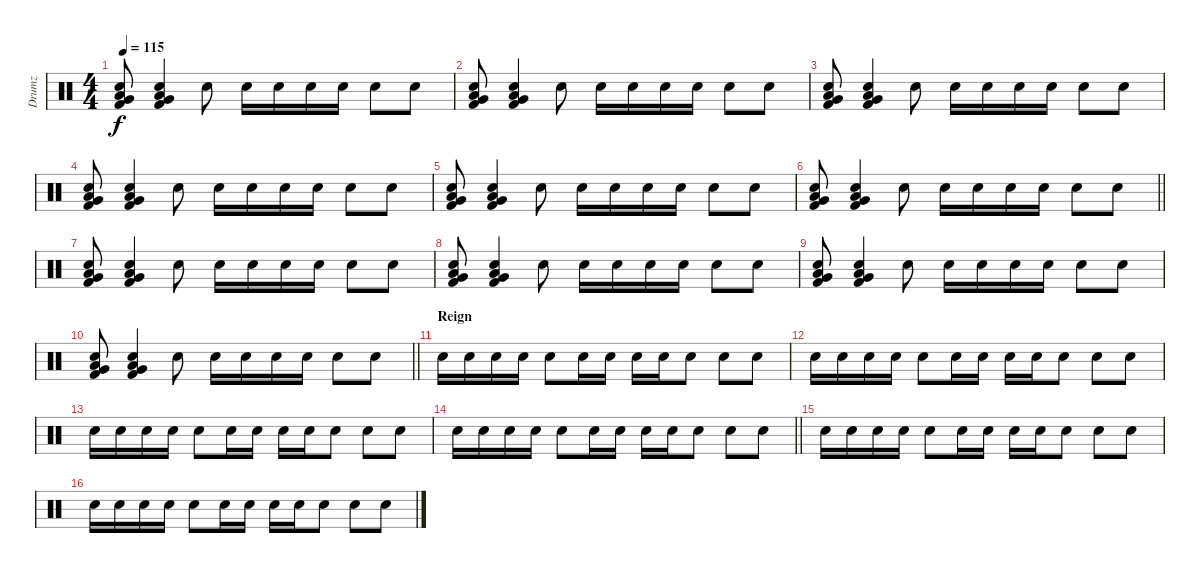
\track ("Drumz" "Drumz") {instrument percussion}
\staff {score}
\articulation defaults
\ts (4 4)
\tempo 115
\clef neutral
\ks c
("Snare (hit) 2" "Very Low Tom (hit)" "Low Floor Tom (hit)" "Kick (hit) 2").8{dy f} ("Snare (hit) 2" "Very Low Tom (hit)" "Low Floor Tom (hit)" "Kick (hit) 2").4 "Snare (hit) 2".8 "Snare (hit) 2".16 "Snare (hit) 2".16 "Snare (hit) 2".16 "Snare (hit) 2".16 "Snare (hit) 2".8 "Snare (hit) 2".8 |
("Snare (hit) 2" "Very Low Tom (hit)" "Low Floor Tom (hit)" "Kick (hit) 2").8 ("Snare (hit) 2" "Very Low Tom (hit)" "Low Floor Tom (hit)" "Kick (hit) 2").4 "Snare (hit) 2".8 "Snare (hit) 2".16 "Snare (hit) 2".16 "Snare (hit) 2".16 "Snare (hit) 2".16 "Snare (hit) 2".8 "Snare (hit) 2".8 |
("Snare (hit) 2" "Very Low Tom (hit)" "Low Floor Tom (hit)" "Kick (hit) 2").8 ("Snare (hit) 2" "Very Low Tom (hit)" "Low Floor Tom (hit)" "Kick (hit) 2").4 "Snare (hit) 2".8 "Snare (hit) 2".16 "Snare (hit) 2".16 "Snare (hit) 2".16 "Snare (hit) 2".16 "Snare (hit) 2".8 "Snare (hit) 2".8 |
("Snare (hit) 2" "Very Low Tom (hit)" "Low Floor Tom (hit)" "Kick (hit) 2").8 ("Snare (hit) 2" "Very Low Tom (hit)" "Low Floor Tom (hit)" "Kick (hit) 2").4 "Snare (hit) 2".8 "Snare (hit) 2".16 "Snare (hit) 2".16 "Snare (hit) 2".16 "Snare (hit) 2".16 "Snare (hit) 2".8 "Snare (hit) 2".8 |
("Snare (hit) 2" "Very Low Tom (hit)" "Low Floor Tom (hit)" "Kick (hit) 2").8 ("Snare (hit) 2" "Very Low Tom (hit)" "Low Floor Tom (hit)" "Kick (hit) 2").4 "Snare (hit) 2".8 "Snare (hit) 2".16 "Snare (hit) 2".16 "Snare (hit) 2".16 "Snare (hit) 2".16 "Snare (hit) 2".8 "Snare (hit) 2".8 |
\barLineRight lightlight
("Snare (hit) 2" "Very Low Tom (hit)" "Low Floor Tom (hit)" "Kick (hit) 2").8 ("Snare (hit) 2" "Very Low Tom (hit)" "Low Floor Tom (hit)" "Kick (hit) 2").4 "Snare (hit) 2".8 "Snare (hit) 2".16 "Snare (hit) 2".16 "Snare (hit) 2".16 "Snare (hit) 2".16 "Snare (hit) 2".8 "Snare (hit) 2".8 |
("Snare (hit) 2" "Very Low Tom (hit)" "Low Floor Tom (hit)" "Kick (hit) 2").8 ("Snare (hit) 2" "Very Low Tom (hit)" "Low Floor Tom (hit)" "Kick (hit) 2").4 "Snare (hit) 2".8 "Snare (hit) 2".16 "Snare (hit) 2".16 "Snare (hit) 2".16 "Snare (hit) 2".16 "Snare (hit) 2".8 "Snare (hit) 2".8 |
("Snare (hit) 2" "Very Low Tom (hit)" "Low Floor Tom (hit)" "Kick (hit) 2").8 ("Snare (hit) 2" "Very Low Tom (hit)" "Low Floor Tom (hit)" "Kick (hit) 2").4 "Snare (hit) 2".8 "Snare (hit) 2".16 "Snare (hit) 2".16 "Snare (hit) 2".16 "Snare (hit) 2".16 "Snare (hit) 2".8 "Snare (hit) 2".8 |
("Snare (hit) 2" "Very Low Tom (hit)" "Low Floor Tom (hit)" "Kick (hit) 2").8 ("Snare (hit) 2" "Very Low Tom (hit)" "Low Floor Tom (hit)" "Kick (hit) 2").4 "Snare (hit) 2".8 "Snare (hit) 2".16 "Snare (hit) 2".16 "Snare (hit) 2".16 "Snare (hit) 2".16 "Snare (hit) 2".8 "Snare (hit) 2".8 |
\barLineRight lightlight
("Snare (hit) 2" "Very Low Tom (hit)" "Low Floor Tom (hit)" "Kick (hit) 2").8 ("Snare (hit) 2" "Very Low Tom (hit)" "Low Floor Tom (hit)" "Kick (hit) 2").4 "Snare (hit) 2".8 "Snare (hit) 2".16 "Snare (hit) 2".16 "Snare (hit) 2".16 "Snare (hit) 2".16 "Snare (hit) 2".8 "Snare (hit) 2".8 |
\section ("" "Reign")
"Snare (hit) 2".16 "Snare (hit) 2".16 "Snare (hit) 2".16 "Snare (hit) 2".16 "Snare (hit) 2".8 "Snare (hit) 2".16 "Snare (hit) 2".16 "Snare (hit) 2".16 "Snare (hit) 2".16 "Snare (hit) 2".8 "Snare (hit) 2".8 "Snare (hit) 2".8 |
"Snare (hit) 2".16 "Snare (hit) 2".16 "Snare (hit) 2".16 "Snare (hit) 2".16 "Snare (hit) 2".8 "Snare (hit) 2".16 "Snare (hit) 2".16 "Snare (hit) 2".16 "Snare (hit) 2".16 "Snare (hit) 2".8 "Snare (hit) 2".8 "Snare (hit) 2".8 |
"Snare (hit) 2".16 "Snare (hit) 2".16 "Snare (hit) 2".16 "Snare (hit) 2".16 "Snare (hit) 2".8 "Snare (hit) 2".16 "Snare (hit) 2".16 "Snare (hit) 2".16 "Snare (hit) 2".16 "Snare (hit) 2".8 "Snare (hit) 2".8 "Snare (hit) 2".8 |
\barLineRight lightlight "Snare (hit) 2".16 "Snare (hit) 2".16 "Snare (hit) 2".16 "Snare (hit) 2".16 "Snare (hit) 2".8 "Snare (hit) 2".16 "Snare (hit) 2".16 "Snare (hit) 2".16 "Snare (hit) 2".16 "Snare (hit) 2".8 "Snare (hit) 2".8 "Snare (hit) 2".8
|
"Snare (hit) 2".16 "Snare (hit) 2".16 "Snare (hit) 2".16 "Snare (hit) 2".16 "Snare (hit) 2".8 "Snare (hit) 2".16 "Snare (hit) 2".16 "Snare (hit) 2".16 "Snare (hit) 2".16 "Snare (hit) 2".8 "Snare (hit) 2".8 "Snare (hit) 2".8 |
"Snare (hit) 2".16 "Snare (hit) 2".16 "Snare (hit) 2".16 "Snare (hit) 2".16 "Snare (hit) 2".8 "Snare (hit) 2".16 "Snare (hit) 2".16 "Snare (hit) 2".16 "Snare (hit) 2".16 "Snare (hit) 2".8 "Snare (hit) 2".8 "Snare (hit) 2".8
